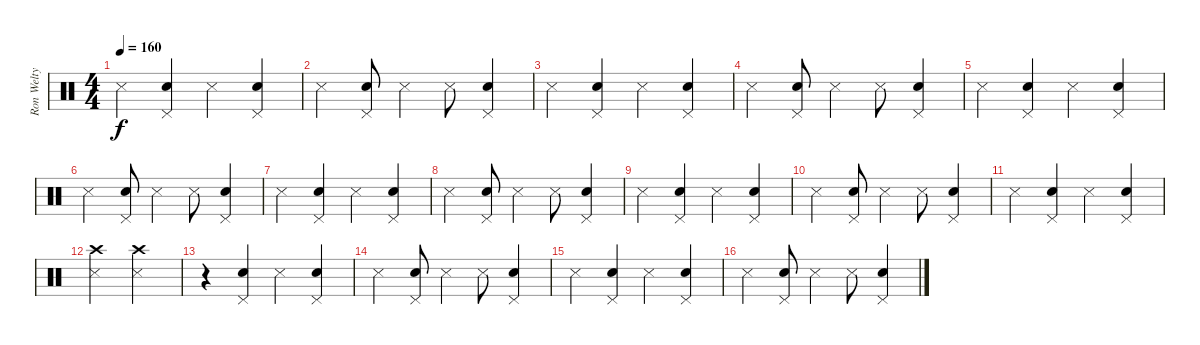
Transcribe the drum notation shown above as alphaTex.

\track ("Ron Welty" "Ron Welty") {instrument percussion}
\staff {score}
\articulation defaults
\ts (4 4)
\tempo 160
\clef neutral
\ks c "Metronome (hit)".4{dy f}
("Pedal Hi-Hat (hit)" "Snare (hit) 2").4 "Metronome (hit)".4 ("Pedal Hi-Hat (hit)" "Snare (hit) 2").4 |
"Metronome (hit)".4 ("Pedal Hi-Hat (hit)" "Snare (hit) 2").8 "Metronome (hit)".4 "Metronome (hit)".8 ("Pedal Hi-Hat (hit)" "Snare (hit) 2").4 |
"Metronome (hit)".4 ("Pedal Hi-Hat (hit)" "Snare (hit) 2").4 "Metronome (hit)".4 ("Pedal Hi-Hat (hit)" "Snare (hit) 2").4 |
"Metronome (hit)".4 ("Pedal Hi-Hat (hit)" "Snare (hit) 2").8 "Metronome (hit)".4 "Metronome (hit)".8 ("Pedal Hi-Hat (hit)" "Snare (hit) 2").4 |
"Metronome (hit)".4 ("Pedal Hi-Hat (hit)" "Snare (hit) 2").4 "Metronome (hit)".4 ("Pedal Hi-Hat (hit)" "Snare (hit) 2").4 |
"Metronome (hit)".4 ("Pedal Hi-Hat (hit)" "Snare (hit) 2").8 "Metronome (hit)".4 "Metronome (hit)".8 ("Pedal Hi-Hat (hit)" "Snare (hit) 2").4 |
"Metronome (hit)".4 ("Pedal Hi-Hat (hit)" "Snare (hit) 2").4 "Metronome (hit)".4 ("Pedal Hi-Hat (hit)" "Snare (hit) 2").4 |
"Metronome (hit)".4 ("Pedal Hi-Hat (hit)" "Snare (hit) 2").8 "Metronome (hit)".4 "Metronome (hit)".8 ("Pedal Hi-Hat (hit)" "Snare (hit) 2").4 |
"Metronome (hit)".4 ("Pedal Hi-Hat (hit)" "Snare (hit) 2").4 "Metronome (hit)".4 ("Pedal Hi-Hat (hit)" "Snare (hit) 2").4 |
"Metronome (hit)".4 ("Pedal Hi-Hat (hit)" "Snare (hit) 2").8 "Metronome (hit)".4 "Metronome (hit)".8 ("Pedal Hi-Hat (hit)" "Snare (hit) 2").4 |
"Metronome (hit)".4 ("Pedal Hi-Hat (hit)" "Snare (hit) 2").4 "Metronome (hit)".4 ("Pedal Hi-Hat (hit)" "Snare (hit) 2").4 |
("Crash high (hit)" "Metronome (hit)").2 ("Crash high (hit)" "Metronome (hit)").2 |
r.4 ("Pedal Hi-Hat (hit)" "Snare (hit) 2").4 "Metronome (hit)".4 ("Pedal Hi-Hat (hit)" "Snare (hit) 2").4 |
"Metronome (hit)".4 ("Pedal Hi-Hat (hit)" "Snare (hit) 2").8 "Metronome (hit)".4 "Metronome (hit)".8 ("Pedal Hi-Hat (hit)" "Snare (hit) 2").4 |
"Metronome (hit)".4 ("Pedal Hi-Hat (hit)" "Snare (hit) 2").4 "Metronome (hit)".4 ("Pedal Hi-Hat (hit)" "Snare (hit) 2").4 |
"Metronome (hit)".4 ("Pedal Hi-Hat (hit)" "Snare (hit) 2").8 "Metronome (hit)".4 "Metronome (hit)".8 ("Pedal Hi-Hat (hit)" "Snare (hit) 2").4
